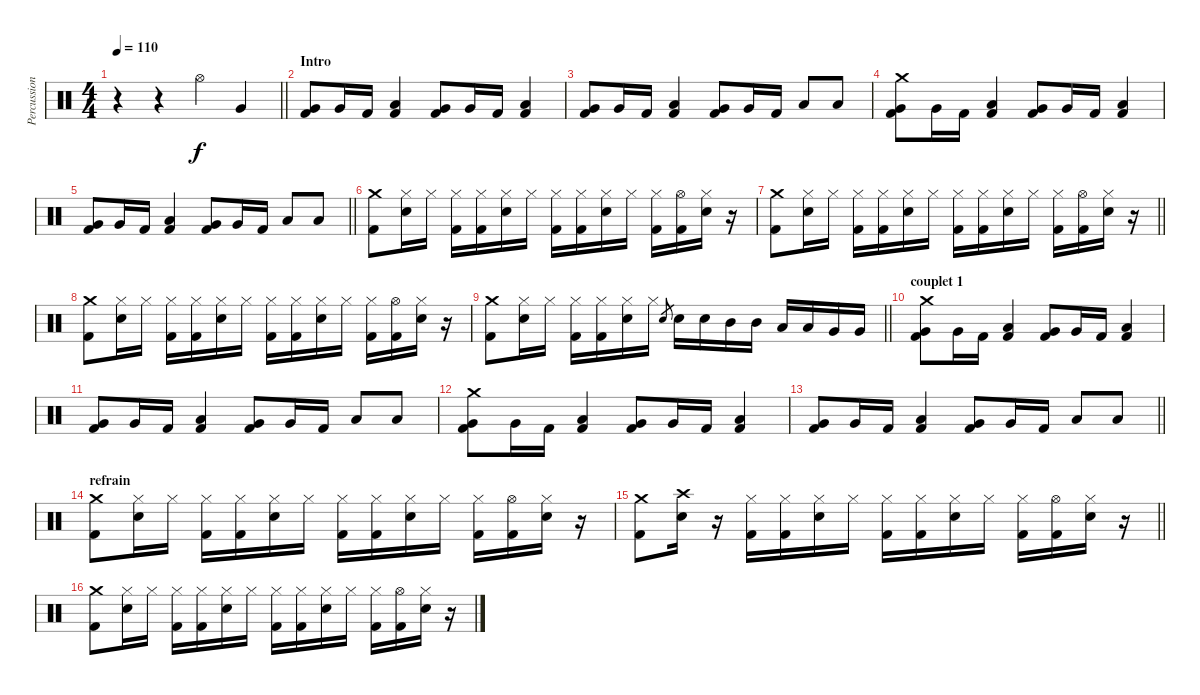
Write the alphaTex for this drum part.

\track ("Percussions" "Percussion") {instrument percussion}
\staff {score}
\articulation defaults
\ts (4 4)
\tempo 110
\clef neutral
\barLineRight lightlight
\ks c
r.4{dy f} r.4 "Hi-Hat (open)".4 "Very Low Tom (hit)".4 |
\section ("" "Intro")
("Very Low Tom (hit)" "Kick (hit) 2").8 "Very Low Tom (hit)".16 "Kick (hit) 2".16 ("Low Tom (hit)" "Kick (hit) 2").4 ("Very Low Tom (hit)" "Kick (hit) 2").8 "Very Low Tom (hit)".16 "Kick (hit) 2".16 ("Low Tom (hit)" "Kick (hit) 2").4 |
("Very Low Tom (hit)" "Kick (hit) 2").8 "Very Low Tom (hit)".16 "Kick (hit) 2".16 ("Low Tom (hit)" "Kick (hit) 2").4 ("Very Low Tom (hit)" "Kick (hit) 2").8 "Very Low Tom (hit)".16 "Kick (hit) 2".16 "Low Tom (hit)".8 "Low Tom (hit)".8 |
("Crash medium (hit)" "Very Low Tom (hit)" "Kick (hit) 2").8 "Very Low Tom (hit)".16 "Kick (hit) 2".16 ("Low Tom (hit)" "Kick (hit) 2").4 ("Very Low Tom (hit)" "Kick (hit) 2").8 "Very Low Tom (hit)".16 "Kick (hit) 2".16 ("Low Tom (hit)" "Kick (hit) 2").4 |
\barLineRight lightlight
("Very Low Tom (hit)" "Kick (hit) 2").8 "Very Low Tom (hit)".16 "Kick (hit) 2".16 ("Low Tom (hit)" "Kick (hit) 2").4 ("Very Low Tom (hit)" "Kick (hit) 2").8 "Very Low Tom (hit)".16 "Kick (hit) 2".16 "Low Tom (hit)".8 "Low Tom (hit)".8 |
("Crash medium (hit)" "Kick (hit) 2").8 ("Hi-Hat (closed)" "Electric Snare (hit)").16 "Hi-Hat (closed)".16 ("Hi-Hat (closed)" "Kick (hit) 2").16 ("Hi-Hat (closed)" "Kick (hit) 2").16 ("Hi-Hat (closed)" "Electric Snare (hit)").16 "Hi-Hat (closed)".16 ("Hi-Hat (closed)" "Kick (hit) 2").16 ("Hi-Hat (closed)" "Kick (hit) 2").16 ("Hi-Hat (closed)" "Electric Snare (hit)").16 "Hi-Hat (closed)".16 ("Hi-Hat (closed)" "Kick (hit) 2").16 ("Hi-Hat (open)" "Kick (hit) 2").16 ("Hi-Hat (closed)" "Electric Snare (hit)").16 r.16 |
\barLineRight lightlight
("Crash medium (hit)" "Kick (hit) 2").8 ("Hi-Hat (closed)" "Electric Snare (hit)").16 "Hi-Hat (closed)".16 ("Hi-Hat (closed)" "Kick (hit) 2").16 ("Hi-Hat (closed)" "Kick (hit) 2").16 ("Hi-Hat (closed)" "Electric Snare (hit)").16 "Hi-Hat (closed)".16 ("Hi-Hat (closed)" "Kick (hit) 2").16 ("Hi-Hat (closed)" "Kick (hit) 2").16 ("Hi-Hat (closed)" "Electric Snare (hit)").16 "Hi-Hat (closed)".16 ("Hi-Hat (closed)" "Kick (hit) 2").16 ("Hi-Hat (open)" "Kick (hit) 2").16 ("Hi-Hat (closed)" "Electric Snare (hit)").16 r.16 |
("Crash medium (hit)" "Kick (hit) 2").8 ("Hi-Hat (closed)" "Electric Snare (hit)").16 "Hi-Hat (closed)".16 ("Hi-Hat (closed)" "Kick (hit) 2").16 ("Hi-Hat (closed)" "Kick (hit) 2").16 ("Hi-Hat (closed)" "Electric Snare (hit)").16 "Hi-Hat (closed)".16 ("Hi-Hat (closed)" "Kick (hit) 2").16 ("Hi-Hat (closed)" "Kick (hit) 2").16 ("Hi-Hat (closed)" "Electric Snare (hit)").16 "Hi-Hat (closed)".16 ("Hi-Hat (closed)" "Kick (hit) 2").16 ("Hi-Hat (open)" "Kick (hit) 2").16 ("Hi-Hat (closed)" "Electric Snare (hit)").16 r.16 |
\barLineRight lightlight
("Crash medium (hit)" "Kick (hit) 2").8 ("Hi-Hat (closed)" "Electric Snare (hit)").16 "Hi-Hat (closed)".16 ("Hi-Hat (closed)" "Kick (hit) 2").16 ("Hi-Hat (closed)" "Kick (hit) 2").16 ("Hi-Hat (closed)" "Electric Snare (hit)").16 "Hi-Hat (closed)".16 "Electric Snare (hit)".8{gr} "Electric Snare (hit)".16 "Electric Snare (hit)".16 "Mid Tom (hit)".16 "Mid Tom (hit)".16 "Low Tom (hit)".16 "Low Tom (hit)".16 "Very Low Tom (hit)".16 "Very Low Tom (hit)".16 |
\section ("" "couplet 1")
("Crash medium (hit)" "Very Low Tom (hit)" "Kick (hit) 2").8 "Very Low Tom (hit)".16 "Kick (hit) 2".16 ("Low Tom (hit)" "Kick (hit) 2").4 ("Very Low Tom (hit)" "Kick (hit) 2").8 "Very Low Tom (hit)".16 "Kick (hit) 2".16 ("Low Tom (hit)" "Kick (hit) 2").4 |
("Very Low Tom (hit)" "Kick (hit) 2").8 "Very Low Tom (hit)".16 "Kick (hit) 2".16 ("Low Tom (hit)" "Kick (hit) 2").4 ("Very Low Tom (hit)" "Kick (hit) 2").8 "Very Low Tom (hit)".16 "Kick (hit) 2".16 "Low Tom (hit)".8 "Low Tom (hit)".8 |
("Crash medium (hit)" "Very Low Tom (hit)" "Kick (hit) 2").8 "Very Low Tom (hit)".16 "Kick (hit) 2".16 ("Low Tom (hit)" "Kick (hit) 2").4 ("Very Low Tom (hit)" "Kick (hit) 2").8 "Very Low Tom (hit)".16 "Kick (hit) 2".16 ("Low Tom (hit)" "Kick (hit) 2").4 |
\barLineRight lightlight
("Very Low Tom (hit)" "Kick (hit) 2").8 "Very Low Tom (hit)".16 "Kick (hit) 2".16 ("Low Tom (hit)" "Kick (hit) 2").4 ("Very Low Tom (hit)" "Kick (hit) 2").8 "Very Low Tom (hit)".16 "Kick (hit) 2".16 "Low Tom (hit)".8 "Low Tom (hit)".8 |
\section ("" "refrain")
("Crash medium (hit)" "Kick (hit) 2").8 ("Hi-Hat (closed)" "Electric Snare (hit)").16 "Hi-Hat (closed)".16 ("Hi-Hat (closed)" "Kick (hit) 2").16 ("Hi-Hat (closed)" "Kick (hit) 2").16 ("Hi-Hat (closed)" "Electric Snare (hit)").16 "Hi-Hat (closed)".16 ("Hi-Hat (closed)" "Kick (hit) 2").16 ("Hi-Hat (closed)" "Kick (hit) 2").16 ("Hi-Hat (closed)" "Electric Snare (hit)").16 "Hi-Hat (closed)".16 ("Hi-Hat (closed)" "Kick (hit) 2").16 ("Hi-Hat (open)" "Kick (hit) 2").16 ("Hi-Hat (closed)" "Electric Snare (hit)").16 r.16 |
\barLineRight lightlight
("Crash medium (hit)" "Kick (hit) 2").8 ("Crash high (hit)" "Electric Snare (hit)").16 r.16 ("Hi-Hat (closed)" "Kick (hit) 2").16 ("Hi-Hat (closed)" "Kick (hit) 2").16 ("Hi-Hat (closed)" "Electric Snare (hit)").16 "Hi-Hat (closed)".16 ("Hi-Hat (closed)" "Kick (hit) 2").16 ("Hi-Hat (closed)" "Kick (hit) 2").16 ("Hi-Hat (closed)" "Electric Snare (hit)").16 "Hi-Hat (closed)".16 ("Hi-Hat (closed)" "Kick (hit) 2").16 ("Hi-Hat (open)" "Kick (hit) 2").16 ("Hi-Hat (closed)" "Electric Snare (hit)").16 r.16 |
("Crash medium (hit)" "Kick (hit) 2").8 ("Hi-Hat (closed)" "Electric Snare (hit)").16 "Hi-Hat (closed)".16 ("Hi-Hat (closed)" "Kick (hit) 2").16 ("Hi-Hat (closed)" "Kick (hit) 2").16 ("Hi-Hat (closed)" "Electric Snare (hit)").16 "Hi-Hat (closed)".16 ("Hi-Hat (closed)" "Kick (hit) 2").16 ("Hi-Hat (closed)" "Kick (hit) 2").16 ("Hi-Hat (closed)" "Electric Snare (hit)").16 "Hi-Hat (closed)".16 ("Hi-Hat (closed)" "Kick (hit) 2").16 ("Hi-Hat (open)" "Kick (hit) 2").16 ("Hi-Hat (closed)" "Electric Snare (hit)").16 r.16
